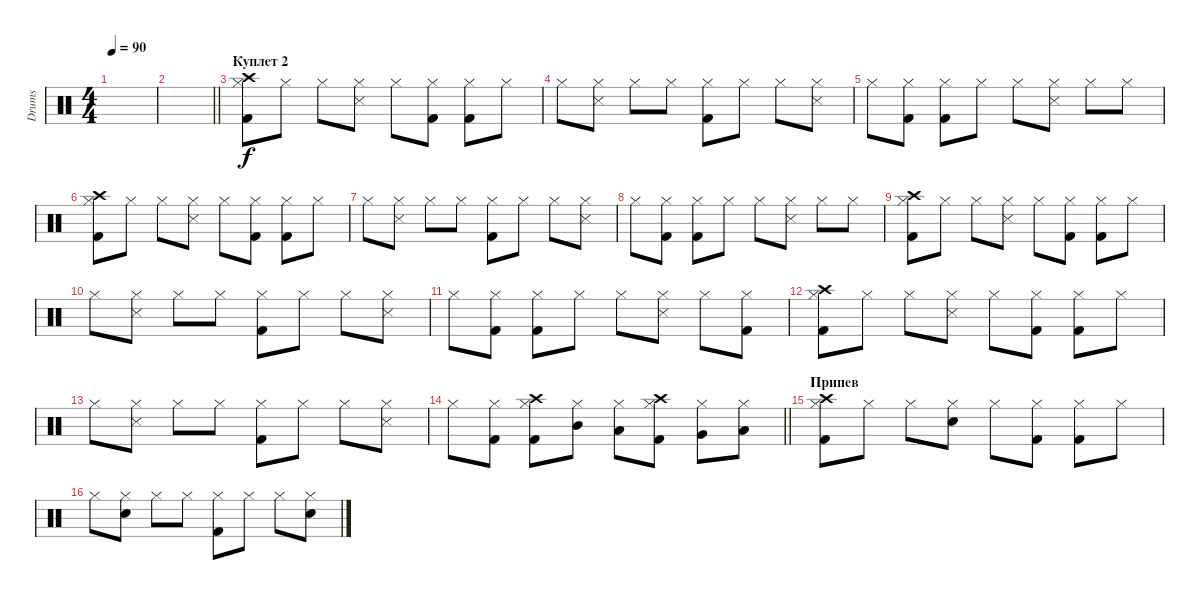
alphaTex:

\track ("Drums" "Drums") {instrument percussion}
\staff {score}
\articulation defaults
\ts (4 4)
\tempo 90
\clef neutral
\ks c
|
\barLineRight lightlight
|
\section ("" "Куплет 2")
("Hi-Hat (closed)" "Kick (hit) 2" "Crash high (hit)").8 "Hi-Hat (closed)".8 "Hi-Hat (closed)".8 ("Hi-Hat (closed)" "Metronome (hit)").8 "Hi-Hat (closed)".8 ("Hi-Hat (closed)" "Kick (hit) 2").8 ("Hi-Hat (closed)" "Kick (hit) 2").8 "Hi-Hat (closed)".8 |
"Hi-Hat (closed)".8 ("Hi-Hat (closed)" "Metronome (hit)").8 "Hi-Hat (closed)".8 "Hi-Hat (closed)".8 ("Hi-Hat (closed)" "Kick (hit) 2").8 "Hi-Hat (closed)".8 "Hi-Hat (closed)".8 ("Hi-Hat (closed)" "Metronome (hit)").8 |
"Hi-Hat (closed)".8 ("Hi-Hat (closed)" "Kick (hit) 2").8 ("Hi-Hat (closed)" "Kick (hit) 2").8 "Hi-Hat (closed)".8 "Hi-Hat (closed)".8 ("Hi-Hat (closed)" "Metronome (hit)").8 "Hi-Hat (closed)".8 "Hi-Hat (closed)".8 |
("Hi-Hat (closed)" "Kick (hit) 2" "Crash high (hit)").8 "Hi-Hat (closed)".8 "Hi-Hat (closed)".8 ("Hi-Hat (closed)" "Metronome (hit)").8 "Hi-Hat (closed)".8 ("Hi-Hat (closed)" "Kick (hit) 2").8 ("Hi-Hat (closed)" "Kick (hit) 2").8 "Hi-Hat (closed)".8 |
"Hi-Hat (closed)".8 ("Hi-Hat (closed)" "Metronome (hit)").8 "Hi-Hat (closed)".8 "Hi-Hat (closed)".8 ("Hi-Hat (closed)" "Kick (hit) 2").8 "Hi-Hat (closed)".8 "Hi-Hat (closed)".8 ("Hi-Hat (closed)" "Metronome (hit)").8 |
"Hi-Hat (closed)".8 ("Hi-Hat (closed)" "Kick (hit) 2").8 ("Hi-Hat (closed)" "Kick (hit) 2").8 "Hi-Hat (closed)".8 "Hi-Hat (closed)".8 ("Hi-Hat (closed)" "Metronome (hit)").8 "Hi-Hat (closed)".8 "Hi-Hat (closed)".8 |
("Hi-Hat (closed)" "Kick (hit) 2" "Crash high (hit)").8 "Hi-Hat (closed)".8 "Hi-Hat (closed)".8 ("Hi-Hat (closed)" "Metronome (hit)").8 "Hi-Hat (closed)".8 ("Hi-Hat (closed)" "Kick (hit) 2").8 ("Hi-Hat (closed)" "Kick (hit) 2").8 "Hi-Hat (closed)".8 |
"Hi-Hat (closed)".8 ("Hi-Hat (closed)" "Metronome (hit)").8 "Hi-Hat (closed)".8 "Hi-Hat (closed)".8 ("Hi-Hat (closed)" "Kick (hit) 2").8 "Hi-Hat (closed)".8 "Hi-Hat (closed)".8 ("Hi-Hat (closed)" "Metronome (hit)").8 |
"Hi-Hat (closed)".8 ("Hi-Hat (closed)" "Kick (hit) 2").8 ("Hi-Hat (closed)" "Kick (hit) 2").8 "Hi-Hat (closed)".8 "Hi-Hat (closed)".8 ("Hi-Hat (closed)" "Metronome (hit)").8 "Hi-Hat (closed)".8 ("Hi-Hat (closed)" "Kick (hit) 2").8 |
("Hi-Hat (closed)" "Kick (hit) 2" "Crash high (hit)").8 "Hi-Hat (closed)".8 "Hi-Hat (closed)".8 ("Hi-Hat (closed)" "Metronome (hit)").8 "Hi-Hat (closed)".8 ("Hi-Hat (closed)" "Kick (hit) 2").8 ("Hi-Hat (closed)" "Kick (hit) 2").8 "Hi-Hat (closed)".8 |
"Hi-Hat (closed)".8 ("Hi-Hat (closed)" "Metronome (hit)").8 "Hi-Hat (closed)".8 "Hi-Hat (closed)".8 ("Hi-Hat (closed)" "Kick (hit) 2").8 "Hi-Hat (closed)".8 "Hi-Hat (closed)".8 ("Hi-Hat (closed)" "Metronome (hit)").8 |
\barLineRight lightlight "Hi-Hat (closed)".8
("Hi-Hat (closed)" "Kick (hit) 2").8 ("Hi-Hat (closed)" "Kick (hit) 2" "Crash high (hit)").8 ("Hi-Hat (closed)" "Mid Tom (hit)").8 ("Hi-Hat (closed)" "Low Tom (hit)").8 ("Hi-Hat (closed)" "Kick (hit) 2" "Crash high (hit)").8 ("Hi-Hat (closed)" "Very Low Tom (hit)").8 ("Hi-Hat (closed)" "Low Floor Tom (hit)").8 |
\section ("" "Припев")
("Hi-Hat (closed)" "Kick (hit) 2" "Crash high (hit)").8 "Hi-Hat (closed)".8 "Hi-Hat (closed)".8 ("Hi-Hat (closed)" "Electric Snare (hit)").8 "Hi-Hat (closed)".8 ("Hi-Hat (closed)" "Kick (hit) 2").8 ("Hi-Hat (closed)" "Kick (hit) 2").8 "Hi-Hat (closed)".8 |
"Hi-Hat (closed)".8 ("Hi-Hat (closed)" "Electric Snare (hit)").8 "Hi-Hat (closed)".8 "Hi-Hat (closed)".8 ("Hi-Hat (closed)" "Kick (hit) 2").8 "Hi-Hat (closed)".8 "Hi-Hat (closed)".8 ("Hi-Hat (closed)" "Electric Snare (hit)").8
